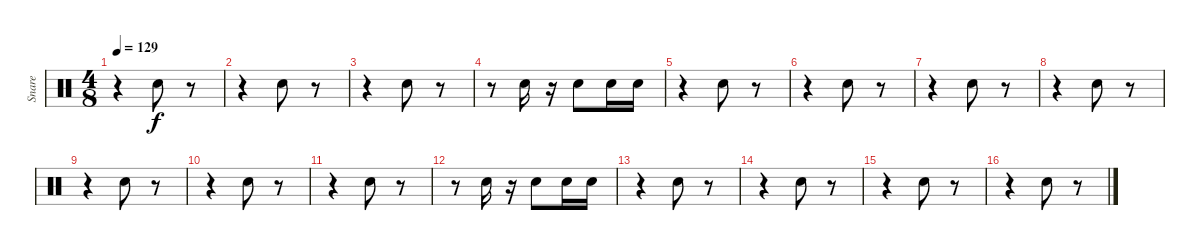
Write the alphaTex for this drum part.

\track ("Snare" "Snare") {instrument percussion}
\staff {score}
\articulation defaults
\ts (4 8)
\tempo 129
\clef neutral
\ks c
r.4{dy f} "Snare (hit) 2".8 r.8 |
r.4 "Snare (hit) 2".8 r.8 |
r.4 "Snare (hit) 2".8 r.8 |
r.8 "Snare (hit) 2".16 r.16 "Snare (hit) 2".8 "Snare (hit) 2".16 "Snare (hit) 2".16 |
r.4 "Snare (hit) 2".8 r.8 |
r.4 "Snare (hit) 2".8 r.8 |
r.4 "Snare (hit) 2".8 r.8 |
r.4 "Snare (hit) 2".8 r.8 |
r.4 "Snare (hit) 2".8 r.8 |
r.4 "Snare (hit) 2".8 r.8 |
r.4 "Snare (hit) 2".8 r.8 |
r.8 "Snare (hit) 2".16 r.16 "Snare (hit) 2".8 "Snare (hit) 2".16 "Snare (hit) 2".16 |
r.4 "Snare (hit) 2".8 r.8 |
r.4 "Snare (hit) 2".8 r.8 |
r.4 "Snare (hit) 2".8 r.8 |
r.4 "Snare (hit) 2".8 r.8
